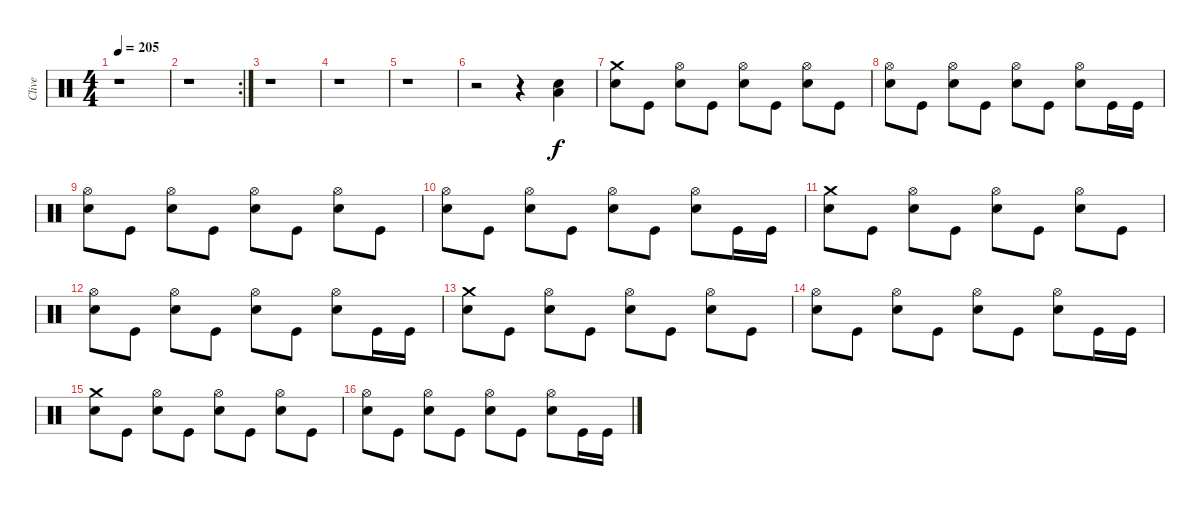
\track ("Clive" "Clive") {instrument percussion}
\staff {score}
\articulation defaults
\ts (4 4)
\tempo 205
\clef neutral
\ks c
r.1{dy f} |
\rc 2
r.1 |
r.1 |
r.1 |
r.1 |
r.2 r.4 ("Snare (hit) 2" "Low Floor Tom (hit)").4 |
("Crash medium (hit)" "Snare (hit) 2").8 "Kick (hit)".8 ("Hi-Hat (open)" "Snare (hit) 2").8 "Kick (hit)".8 ("Hi-Hat (open)" "Snare (hit) 2").8 "Kick (hit)".8 ("Hi-Hat (open)" "Snare (hit) 2").8 "Kick (hit)".8 |
("Hi-Hat (open)" "Snare (hit) 2").8 "Kick (hit)".8 ("Hi-Hat (open)" "Snare (hit) 2").8 "Kick (hit)".8 ("Hi-Hat (open)" "Snare (hit) 2").8 "Kick (hit)".8 ("Hi-Hat (open)" "Snare (hit) 2").8 "Kick (hit)".16 "Kick (hit)".16 |
("Hi-Hat (open)" "Snare (hit) 2").8 "Kick (hit)".8 ("Hi-Hat (open)" "Snare (hit) 2").8 "Kick (hit)".8 ("Hi-Hat (open)" "Snare (hit) 2").8 "Kick (hit)".8 ("Hi-Hat (open)" "Snare (hit) 2").8 "Kick (hit)".8 |
("Hi-Hat (open)" "Snare (hit) 2").8 "Kick (hit)".8 ("Hi-Hat (open)" "Snare (hit) 2").8 "Kick (hit)".8 ("Hi-Hat (open)" "Snare (hit) 2").8 "Kick (hit)".8 ("Hi-Hat (open)" "Snare (hit) 2").8 "Kick (hit)".16 "Kick (hit)".16 |
("Crash medium (hit)" "Snare (hit) 2").8 "Kick (hit)".8 ("Hi-Hat (open)" "Snare (hit) 2").8 "Kick (hit)".8 ("Hi-Hat (open)" "Snare (hit) 2").8 "Kick (hit)".8 ("Hi-Hat (open)" "Snare (hit) 2").8 "Kick (hit)".8 |
("Hi-Hat (open)" "Snare (hit) 2").8 "Kick (hit)".8 ("Hi-Hat (open)" "Snare (hit) 2").8 "Kick (hit)".8 ("Hi-Hat (open)" "Snare (hit) 2").8 "Kick (hit)".8 ("Hi-Hat (open)" "Snare (hit) 2").8 "Kick (hit)".16 "Kick (hit)".16 |
("Crash medium (hit)" "Snare (hit) 2").8 "Kick (hit)".8 ("Hi-Hat (open)" "Snare (hit) 2").8 "Kick (hit)".8 ("Hi-Hat (open)" "Snare (hit) 2").8 "Kick (hit)".8 ("Hi-Hat (open)" "Snare (hit) 2").8 "Kick (hit)".8 |
("Hi-Hat (open)" "Snare (hit) 2").8 "Kick (hit)".8 ("Hi-Hat (open)" "Snare (hit) 2").8 "Kick (hit)".8 ("Hi-Hat (open)" "Snare (hit) 2").8 "Kick (hit)".8 ("Hi-Hat (open)" "Snare (hit) 2").8 "Kick (hit)".16 "Kick (hit)".16 |
("Crash medium (hit)" "Snare (hit) 2").8 "Kick (hit)".8 ("Hi-Hat (open)" "Snare (hit) 2").8 "Kick (hit)".8 ("Hi-Hat (open)" "Snare (hit) 2").8 "Kick (hit)".8 ("Hi-Hat (open)" "Snare (hit) 2").8 "Kick (hit)".8 |
("Hi-Hat (open)" "Snare (hit) 2").8 "Kick (hit)".8 ("Hi-Hat (open)" "Snare (hit) 2").8 "Kick (hit)".8 ("Hi-Hat (open)" "Snare (hit) 2").8 "Kick (hit)".8 ("Hi-Hat (open)" "Snare (hit) 2").8 "Kick (hit)".16 "Kick (hit)".16
